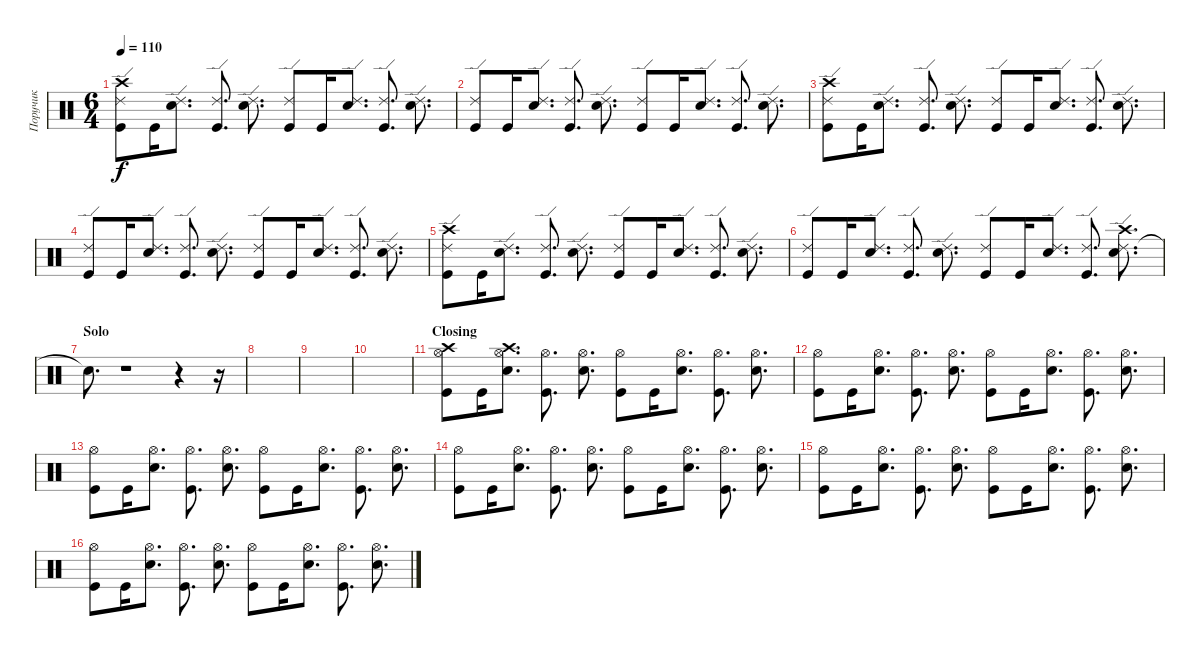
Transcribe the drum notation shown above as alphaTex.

\track ("Поручик" "Поручик") {instrument percussion}
\staff {score}
\articulation defaults
\ts (6 4)
\tempo 110
\clef neutral
\ks c
("Ride (edge) 2" "Kick (hit)" "Crash high (hit)").8{dy f} "Kick (hit)".16 ("Ride (edge) 2" "Snare (hit) 2").8{d} ("Ride (edge) 2" "Kick (hit)").8{d} ("Ride (edge) 2" "Snare (hit) 2").8{d} ("Ride (edge) 2" "Kick (hit)").8 "Kick (hit)".16 ("Ride (edge) 2" "Snare (hit) 2").8{d} ("Ride (edge) 2" "Kick (hit)").8{d} ("Ride (edge) 2" "Snare (hit) 2").8{d} |
("Ride (edge) 2" "Kick (hit)").8 "Kick (hit)".16 ("Ride (edge) 2" "Snare (hit) 2").8{d} ("Ride (edge) 2" "Kick (hit)").8{d} ("Ride (edge) 2" "Snare (hit) 2").8{d} ("Ride (edge) 2" "Kick (hit)").8 "Kick (hit)".16 ("Ride (edge) 2" "Snare (hit) 2").8{d} ("Ride (edge) 2" "Kick (hit)").8{d} ("Ride (edge) 2" "Snare (hit) 2").8{d} |
("Ride (edge) 2" "Kick (hit)" "Crash high (hit)").8 "Kick (hit)".16 ("Ride (edge) 2" "Snare (hit) 2").8{d} ("Ride (edge) 2" "Kick (hit)").8{d} ("Ride (edge) 2" "Snare (hit) 2").8{d} ("Ride (edge) 2" "Kick (hit)").8 "Kick (hit)".16 ("Ride (edge) 2" "Snare (hit) 2").8{d} ("Ride (edge) 2" "Kick (hit)").8{d} ("Ride (edge) 2" "Snare (hit) 2").8{d} |
("Ride (edge) 2" "Kick (hit)").8 "Kick (hit)".16 ("Ride (edge) 2" "Snare (hit) 2").8{d} ("Ride (edge) 2" "Kick (hit)").8{d} ("Ride (edge) 2" "Snare (hit) 2").8{d} ("Ride (edge) 2" "Kick (hit)").8 "Kick (hit)".16 ("Ride (edge) 2" "Snare (hit) 2").8{d} ("Ride (edge) 2" "Kick (hit)").8{d} ("Ride (edge) 2" "Snare (hit) 2").8{d} |
("Ride (edge) 2" "Kick (hit)" "Crash high (hit)").8 "Kick (hit)".16 ("Ride (edge) 2" "Snare (hit) 2").8{d} ("Ride (edge) 2" "Kick (hit)").8{d} ("Ride (edge) 2" "Snare (hit) 2").8{d} ("Ride (edge) 2" "Kick (hit)").8 "Kick (hit)".16 ("Ride (edge) 2" "Snare (hit) 2").8{d} ("Ride (edge) 2" "Kick (hit)").8{d} ("Ride (edge) 2" "Snare (hit) 2").8{d} |
("Ride (edge) 2" "Kick (hit)").8 "Kick (hit)".16 ("Ride (edge) 2" "Snare (hit) 2").8{d} ("Ride (edge) 2" "Kick (hit)").8{d} ("Ride (edge) 2" "Snare (hit) 2").8{d} ("Ride (edge) 2" "Kick (hit)").8 "Kick (hit)".16 ("Ride (edge) 2" "Snare (hit) 2").8{d} ("Ride (edge) 2" "Kick (hit)").8{d} ("Ride (edge) 2" "Snare (hit) 2" "Crash high (hit)").8{d} |
\section ("" "Solo")
"Snare (hit)"{t}.8{d} r.1 r.4 r.16 |
|
|
|
\section ("" "Closing")
("Hi-Hat (open)" "Kick (hit)" "Crash high (hit)").8 "Kick (hit)".16 ("Hi-Hat (open)" "Snare (hit) 2" "Crash high (hit)").8{d} ("Hi-Hat (open)" "Kick (hit)").8{d} ("Hi-Hat (open)" "Snare (hit) 2").8{d} ("Hi-Hat (open)" "Kick (hit)").8 "Kick (hit)".16 ("Hi-Hat (open)" "Snare (hit) 2").8{d} ("Hi-Hat (open)" "Kick (hit)").8{d} ("Hi-Hat (open)" "Snare (hit) 2").8{d} |
("Hi-Hat (open)" "Kick (hit)").8 "Kick (hit)".16 ("Hi-Hat (open)" "Snare (hit) 2").8{d} ("Hi-Hat (open)" "Kick (hit)").8{d} ("Hi-Hat (open)" "Snare (hit) 2").8{d} ("Hi-Hat (open)" "Kick (hit)").8 "Kick (hit)".16 ("Hi-Hat (open)" "Snare (hit) 2").8{d} ("Hi-Hat (open)" "Kick (hit)").8{d} ("Hi-Hat (open)" "Snare (hit) 2").8{d} |
("Hi-Hat (open)" "Kick (hit)").8 "Kick (hit)".16 ("Hi-Hat (open)" "Snare (hit) 2").8{d} ("Hi-Hat (open)" "Kick (hit)").8{d} ("Hi-Hat (open)" "Snare (hit) 2").8{d} ("Hi-Hat (open)" "Kick (hit)").8 "Kick (hit)".16 ("Hi-Hat (open)" "Snare (hit) 2").8{d} ("Hi-Hat (open)" "Kick (hit)").8{d} ("Hi-Hat (open)" "Snare (hit) 2").8{d} |
("Hi-Hat (open)" "Kick (hit)").8 "Kick (hit)".16 ("Hi-Hat (open)" "Snare (hit) 2").8{d} ("Hi-Hat (open)" "Kick (hit)").8{d} ("Hi-Hat (open)" "Snare (hit) 2").8{d} ("Hi-Hat (open)" "Kick (hit)").8 "Kick (hit)".16 ("Hi-Hat (open)" "Snare (hit) 2").8{d} ("Hi-Hat (open)" "Kick (hit)").8{d} ("Hi-Hat (open)" "Snare (hit) 2").8{d} |
("Hi-Hat (open)" "Kick (hit)").8{volume 10} "Kick (hit)".16 ("Hi-Hat (open)" "Snare (hit) 2").8{d} ("Hi-Hat (open)" "Kick (hit)").8{d} ("Hi-Hat (open)" "Snare (hit) 2").8{d} ("Hi-Hat (open)" "Kick (hit)").8 "Kick (hit)".16 ("Hi-Hat (open)" "Snare (hit) 2").8{d} ("Hi-Hat (open)" "Kick (hit)").8{d} ("Hi-Hat (open)" "Snare (hit) 2").8{d} |
("Hi-Hat (open)" "Kick (hit)").8{volume 9} "Kick (hit)".16 ("Hi-Hat (open)" "Snare (hit) 2").8{d} ("Hi-Hat (open)" "Kick (hit)").8{d} ("Hi-Hat (open)" "Snare (hit) 2").8{d} ("Hi-Hat (open)" "Kick (hit)").8 "Kick (hit)".16 ("Hi-Hat (open)" "Snare (hit) 2").8{d} ("Hi-Hat (open)" "Kick (hit)").8{d} ("Hi-Hat (open)" "Snare (hit) 2").8{d}
